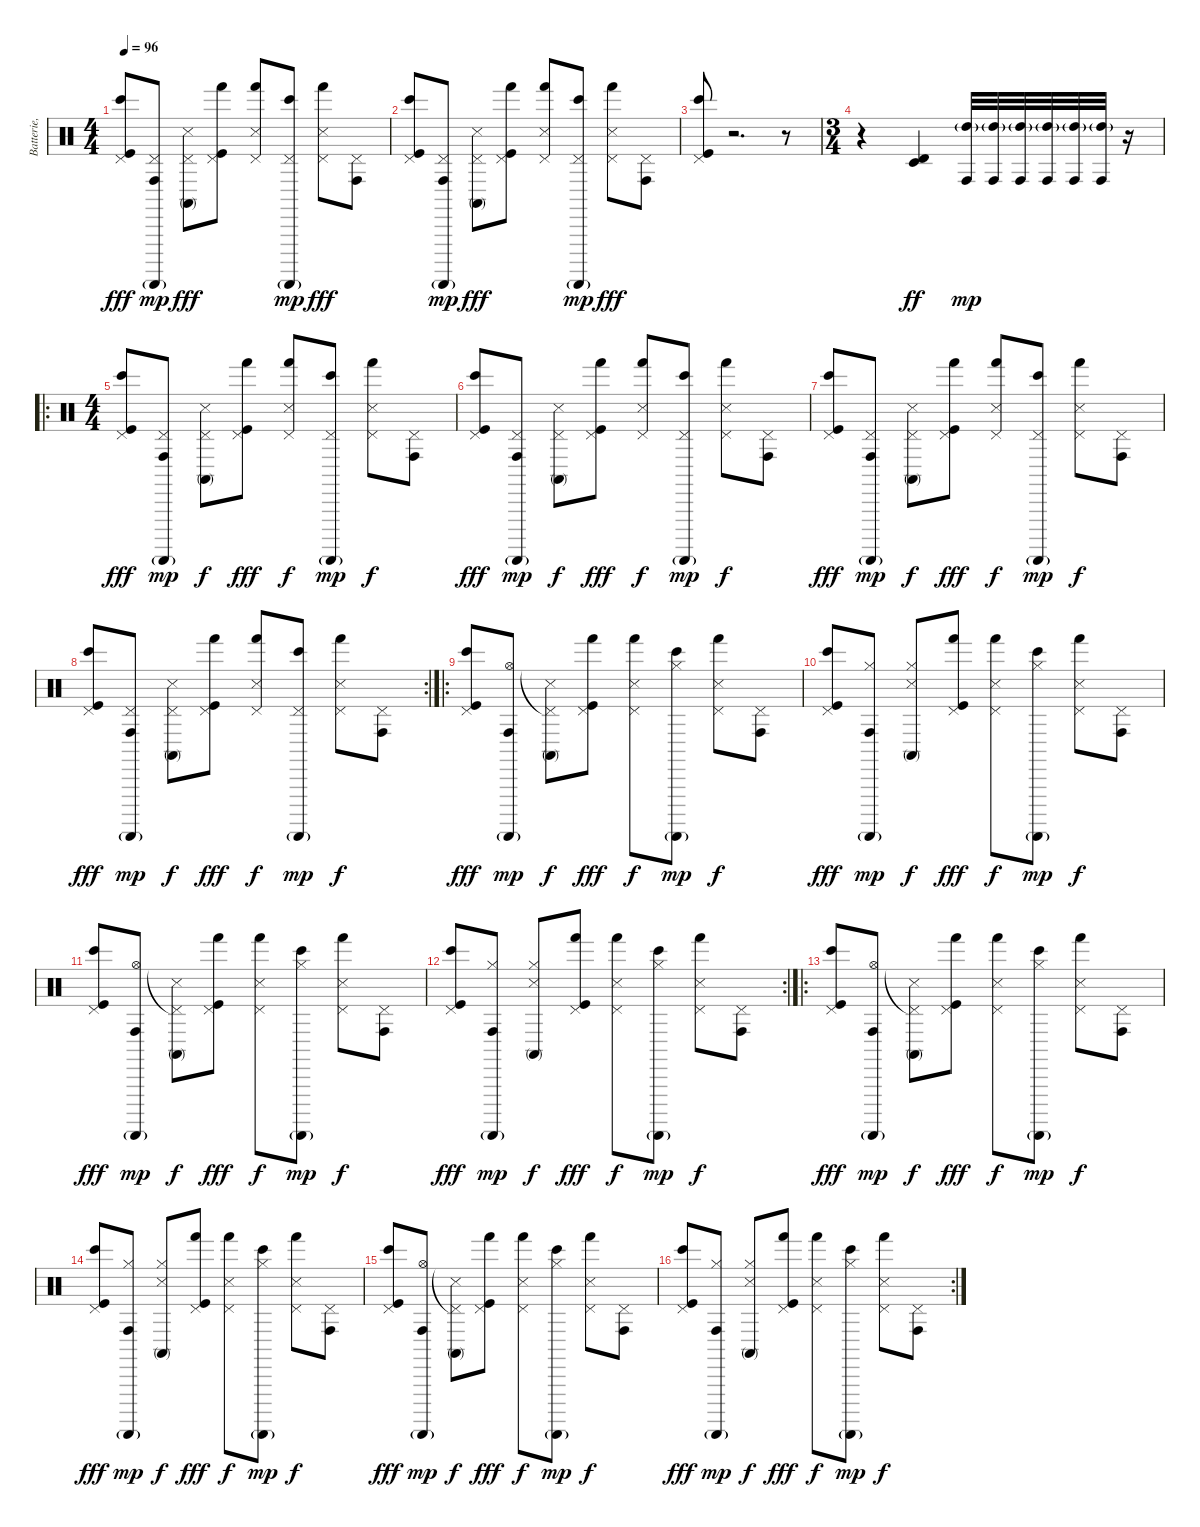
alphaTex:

\track ("Batterie, percu." "Batterie, ") {instrument percussion}
\staff {score}
\articulation defaults
\ts (4 4)
\tempo 96
\clef neutral
\ks c
("Pedal Hi-Hat (hit)" "Bongo High (hit)" "Kick (hit)").8{dy fff} ("Pedal Hi-Hat (hit)" "Conga high (hit)" "Guiro (scrap-return)"{g}).8{dy mp} ("Pedal Hi-Hat (hit)" "Conga high (mute)" "Snare (side stick) 3").8{dy fff} ("Pedal Hi-Hat (hit)" "Hand (hit)" "Kick (hit)").8 ("Pedal Hi-Hat (hit)" "Hand (hit)" "Snare (side stick) 3").8 ("Pedal Hi-Hat (hit)" "Bongo High (hit)" "Guiro (scrap-return)"{g}).8{dy mp} ("Pedal Hi-Hat (hit)" "Hand (hit)" "Snare (side stick) 3").8{dy fff} ("Pedal Hi-Hat (hit)" "Conga high (hit)").8 |
("Pedal Hi-Hat (hit)" "Bongo High (hit)" "Kick (hit)").8 ("Pedal Hi-Hat (hit)" "Conga high (hit)" "Guiro (scrap-return)"{g}).8{dy mp} ("Pedal Hi-Hat (hit)" "Conga high (mute)" "Snare (side stick) 3").8{dy fff} ("Pedal Hi-Hat (hit)" "Hand (hit)" "Kick (hit)").8 ("Pedal Hi-Hat (hit)" "Hand (hit)" "Snare (side stick) 3").8 ("Pedal Hi-Hat (hit)" "Bongo High (hit)" "Guiro (scrap-return)"{g}).8{dy mp} ("Pedal Hi-Hat (hit)" "Hand (hit)" "Snare (side stick) 3").8{dy fff} ("Pedal Hi-Hat (hit)" "Conga high (hit)").8 |
("Pedal Hi-Hat (hit)" "Bongo High (hit)" "Kick (hit)").8 r.2{d} r.8 |
\ts (3 4)
r.4 ("Timbale low (hit)" "Timbale high (hit)").4{dy ff} ("Conga high (hit)" "High Tom (hit)"{g}).32{dy mp} ("Conga high (hit)" "High Tom (hit)"{g}).32 ("Conga high (hit)" "High Tom (hit)"{g}).32 ("Conga high (hit)" "High Tom (hit)"{g}).32 ("Conga high (hit)" "High Tom (hit)"{g}).32 ("Conga high (hit)" "High Tom (hit)"{g}).32 r.16 |
\ro
\ts (4 4)
("Pedal Hi-Hat (hit)" "Bongo High (hit)" "Kick (hit)").8{dy fff} ("Pedal Hi-Hat (hit)" "Conga high (hit)" "Guiro (scrap-return)"{g}).8{dy mp} ("Pedal Hi-Hat (hit)" "Conga high (mute)" "Snare (side stick) 3").8{dy f} ("Pedal Hi-Hat (hit)" "Hand (hit)" "Kick (hit)").8{dy fff} ("Pedal Hi-Hat (hit)" "Hand (hit)" "Snare (side stick) 3").8{dy f} ("Pedal Hi-Hat (hit)" "Bongo High (hit)" "Guiro (scrap-return)"{g}).8{dy mp} ("Pedal Hi-Hat (hit)" "Hand (hit)" "Snare (side stick) 3").8{dy f} ("Pedal Hi-Hat (hit)" "Conga high (hit)").8 |
("Pedal Hi-Hat (hit)" "Bongo High (hit)" "Kick (hit)").8{dy fff} ("Pedal Hi-Hat (hit)" "Conga high (hit)" "Guiro (scrap-return)"{g}).8{dy mp} ("Pedal Hi-Hat (hit)" "Conga high (mute)" "Snare (side stick) 3").8{dy f} ("Pedal Hi-Hat (hit)" "Hand (hit)" "Kick (hit)").8{dy fff} ("Pedal Hi-Hat (hit)" "Hand (hit)" "Snare (side stick) 3").8{dy f} ("Pedal Hi-Hat (hit)" "Bongo High (hit)" "Guiro (scrap-return)"{g}).8{dy mp} ("Pedal Hi-Hat (hit)" "Hand (hit)" "Snare (side stick) 3").8{dy f} ("Pedal Hi-Hat (hit)" "Conga high (hit)").8 |
("Pedal Hi-Hat (hit)" "Bongo High (hit)" "Kick (hit)").8{dy fff} ("Pedal Hi-Hat (hit)" "Conga high (hit)" "Guiro (scrap-return)"{g}).8{dy mp} ("Pedal Hi-Hat (hit)" "Conga high (mute)" "Snare (side stick) 3").8{dy f} ("Pedal Hi-Hat (hit)" "Hand (hit)" "Kick (hit)").8{dy fff} ("Pedal Hi-Hat (hit)" "Hand (hit)" "Snare (side stick) 3").8{dy f} ("Pedal Hi-Hat (hit)" "Bongo High (hit)" "Guiro (scrap-return)"{g}).8{dy mp} ("Pedal Hi-Hat (hit)" "Hand (hit)" "Snare (side stick) 3").8{dy f} ("Pedal Hi-Hat (hit)" "Conga high (hit)").8 |
\rc 2
("Pedal Hi-Hat (hit)" "Bongo High (hit)" "Kick (hit)").8{dy fff} ("Pedal Hi-Hat (hit)" "Conga high (hit)" "Guiro (scrap-return)"{g}).8{dy mp} ("Pedal Hi-Hat (hit)" "Conga high (mute)" "Snare (side stick) 3").8{dy f} ("Pedal Hi-Hat (hit)" "Hand (hit)" "Kick (hit)").8{dy fff} ("Pedal Hi-Hat (hit)" "Hand (hit)" "Snare (side stick) 3").8{dy f} ("Pedal Hi-Hat (hit)" "Bongo High (hit)" "Guiro (scrap-return)"{g}).8{dy mp} ("Pedal Hi-Hat (hit)" "Hand (hit)" "Snare (side stick) 3").8{dy f} ("Pedal Hi-Hat (hit)" "Conga high (hit)").8 |
\ro
("Pedal Hi-Hat (hit)" "Bongo High (hit)" "Kick (hit)").8{dy fff} ("Hi-Hat (open)" "Conga high (hit)" "Guiro (scrap-return)"{g}).8{dy mp} ("Pedal Hi-Hat (hit)"{t} "Conga high (mute)" "Snare (side stick) 3").8{dy f} ("Pedal Hi-Hat (hit)" "Hand (hit)" "Kick (hit)").8{dy fff} ("Pedal Hi-Hat (hit)" "Hand (hit)" "Snare (side stick) 3").8{dy f} ("Hi-Hat (closed)" "Bongo High (hit)" "Guiro (scrap-return)"{g}).8{dy mp} ("Pedal Hi-Hat (hit)" "Hand (hit)" "Snare (side stick) 3").8{dy f} ("Pedal Hi-Hat (hit)" "Conga high (hit)").8 |
("Pedal Hi-Hat (hit)" "Bongo High (hit)" "Kick (hit)").8{dy fff} ("Hi-Hat (closed)" "Conga high (hit)" "Guiro (scrap-return)"{g}).8{dy mp} ("Hi-Hat (closed)" "Conga high (mute)" "Snare (side stick) 3").8{dy f} ("Pedal Hi-Hat (hit)" "Hand (hit)" "Kick (hit)").8{dy fff} ("Pedal Hi-Hat (hit)" "Hand (hit)" "Snare (side stick) 3").8{dy f} ("Hi-Hat (closed)" "Bongo High (hit)" "Guiro (scrap-return)"{g}).8{dy mp} ("Pedal Hi-Hat (hit)" "Hand (hit)" "Snare (side stick) 3").8{dy f} ("Pedal Hi-Hat (hit)" "Conga high (hit)").8 |
("Pedal Hi-Hat (hit)" "Bongo High (hit)" "Kick (hit)").8{dy fff} ("Hi-Hat (open)" "Conga high (hit)" "Guiro (scrap-return)"{g}).8{dy mp} ("Pedal Hi-Hat (hit)"{t} "Conga high (mute)" "Snare (side stick) 3").8{dy f} ("Pedal Hi-Hat (hit)" "Hand (hit)" "Kick (hit)").8{dy fff} ("Pedal Hi-Hat (hit)" "Hand (hit)" "Snare (side stick) 3").8{dy f} ("Hi-Hat (closed)" "Bongo High (hit)" "Guiro (scrap-return)"{g}).8{dy mp} ("Pedal Hi-Hat (hit)" "Hand (hit)" "Snare (side stick) 3").8{dy f} ("Pedal Hi-Hat (hit)" "Conga high (hit)").8 |
\rc 2
("Pedal Hi-Hat (hit)" "Bongo High (hit)" "Kick (hit)").8{dy fff} ("Hi-Hat (closed)" "Conga high (hit)" "Guiro (scrap-return)"{g}).8{dy mp} ("Hi-Hat (closed)" "Conga high (mute)" "Snare (side stick) 3").8{dy f} ("Pedal Hi-Hat (hit)" "Hand (hit)" "Kick (hit)").8{dy fff} ("Pedal Hi-Hat (hit)" "Hand (hit)" "Snare (side stick) 3").8{dy f} ("Hi-Hat (closed)" "Bongo High (hit)" "Guiro (scrap-return)"{g}).8{dy mp} ("Pedal Hi-Hat (hit)" "Hand (hit)" "Snare (side stick) 3").8{dy f} ("Pedal Hi-Hat (hit)" "Conga high (hit)").8 |
\ro
("Pedal Hi-Hat (hit)" "Bongo High (hit)" "Kick (hit)").8{dy fff} ("Hi-Hat (open)" "Conga high (hit)" "Guiro (scrap-return)"{g}).8{dy mp} ("Pedal Hi-Hat (hit)"{t} "Conga high (mute)" "Snare (side stick) 3").8{dy f} ("Pedal Hi-Hat (hit)" "Hand (hit)" "Kick (hit)").8{dy fff} ("Pedal Hi-Hat (hit)" "Hand (hit)" "Snare (side stick) 3").8{dy f} ("Hi-Hat (closed)" "Bongo High (hit)" "Guiro (scrap-return)"{g}).8{dy mp} ("Pedal Hi-Hat (hit)" "Hand (hit)" "Snare (side stick) 3").8{dy f} ("Pedal Hi-Hat (hit)" "Conga high (hit)").8 |
("Pedal Hi-Hat (hit)" "Bongo High (hit)" "Kick (hit)").8{dy fff} ("Hi-Hat (closed)" "Conga high (hit)" "Guiro (scrap-return)"{g}).8{dy mp} ("Hi-Hat (closed)" "Conga high (mute)" "Snare (side stick) 3").8{dy f} ("Pedal Hi-Hat (hit)" "Hand (hit)" "Kick (hit)").8{dy fff} ("Pedal Hi-Hat (hit)" "Hand (hit)" "Snare (side stick) 3").8{dy f} ("Hi-Hat (closed)" "Bongo High (hit)" "Guiro (scrap-return)"{g}).8{dy mp} ("Pedal Hi-Hat (hit)" "Hand (hit)" "Snare (side stick) 3").8{dy f} ("Pedal Hi-Hat (hit)" "Conga high (hit)").8 |
("Pedal Hi-Hat (hit)" "Bongo High (hit)" "Kick (hit)").8{dy fff} ("Hi-Hat (open)" "Conga high (hit)" "Guiro (scrap-return)"{g}).8{dy mp} ("Pedal Hi-Hat (hit)"{t} "Conga high (mute)" "Snare (side stick) 3").8{dy f} ("Pedal Hi-Hat (hit)" "Hand (hit)" "Kick (hit)").8{dy fff} ("Pedal Hi-Hat (hit)" "Hand (hit)" "Snare (side stick) 3").8{dy f} ("Hi-Hat (closed)" "Bongo High (hit)" "Guiro (scrap-return)"{g}).8{dy mp} ("Pedal Hi-Hat (hit)" "Hand (hit)" "Snare (side stick) 3").8{dy f} ("Pedal Hi-Hat (hit)" "Conga high (hit)").8 |
\rc 2
("Pedal Hi-Hat (hit)" "Bongo High (hit)" "Kick (hit)").8{dy fff} ("Hi-Hat (closed)" "Conga high (hit)" "Guiro (scrap-return)"{g}).8{dy mp} ("Hi-Hat (closed)" "Conga high (mute)" "Snare (side stick) 3").8{dy f} ("Pedal Hi-Hat (hit)" "Hand (hit)" "Kick (hit)").8{dy fff} ("Pedal Hi-Hat (hit)" "Hand (hit)" "Snare (side stick) 3").8{dy f} ("Hi-Hat (closed)" "Bongo High (hit)" "Guiro (scrap-return)"{g}).8{dy mp} ("Pedal Hi-Hat (hit)" "Hand (hit)" "Snare (side stick) 3").8{dy f} ("Pedal Hi-Hat (hit)" "Conga high (hit)").8
